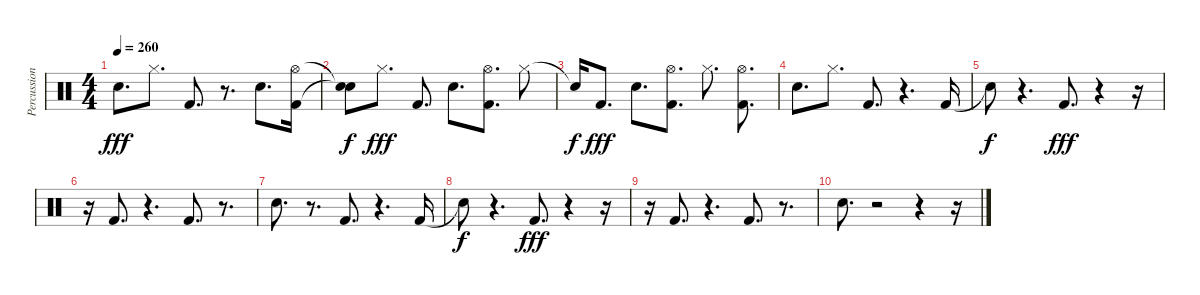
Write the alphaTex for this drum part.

\track ("Percussion" "Percussion") {instrument percussion}
\staff {score}
\articulation defaults
\ts (4 4)
\tempo 260
\clef neutral
\ks c "Electric Snare (hit)".8{d dy fff} "Hi-Hat (closed)".8{d} "Kick (hit) 2".8{d}
r.8{d} "Electric Snare (hit)".8{d} ("Kick (hit) 2" "Hi-Hat (open)").16 |
("Snare (hit)"{t} "Snare (hit)"{t}).8{dy f} "Hi-Hat (closed)".8{d dy fff} "Kick (hit) 2".8{d} "Electric Snare (hit)".8{d} ("Kick (hit) 2" "Hi-Hat (open)").8{d} "Hi-Hat (closed)".8 |
"Snare (hit)"{t}.16{dy f} "Kick (hit) 2".8{d dy fff} "Electric Snare (hit)".8{d} ("Kick (hit) 2" "Hi-Hat (open)").8{d} "Hi-Hat (closed)".8{d} ("Hi-Hat (open)" "Kick (hit) 2").8{d} |
"Electric Snare (hit)".8{d} "Hi-Hat (closed)".8{d} "Kick (hit) 2".8{d} r.4{d} "Kick (hit) 2".16 |
"Snare (hit)"{t}.8{dy f} r.4{d} "Kick (hit) 2".8{d dy fff} r.4 r.16 |
r.16 "Kick (hit) 2".8{d} r.4{d} "Kick (hit) 2".8{d} r.8{d} |
"Electric Snare (hit)".8{d} r.8{d} "Kick (hit) 2".8{d} r.4{d} "Kick (hit) 2".16 |
"Snare (hit)"{t}.8{dy f} r.4{d} "Kick (hit) 2".8{d dy fff} r.4 r.16 |
r.16 "Kick (hit) 2".8{d} r.4{d} "Kick (hit) 2".8{d} r.8{d} |
"Electric Snare (hit)".8{d} r.2 r.4 r.16
